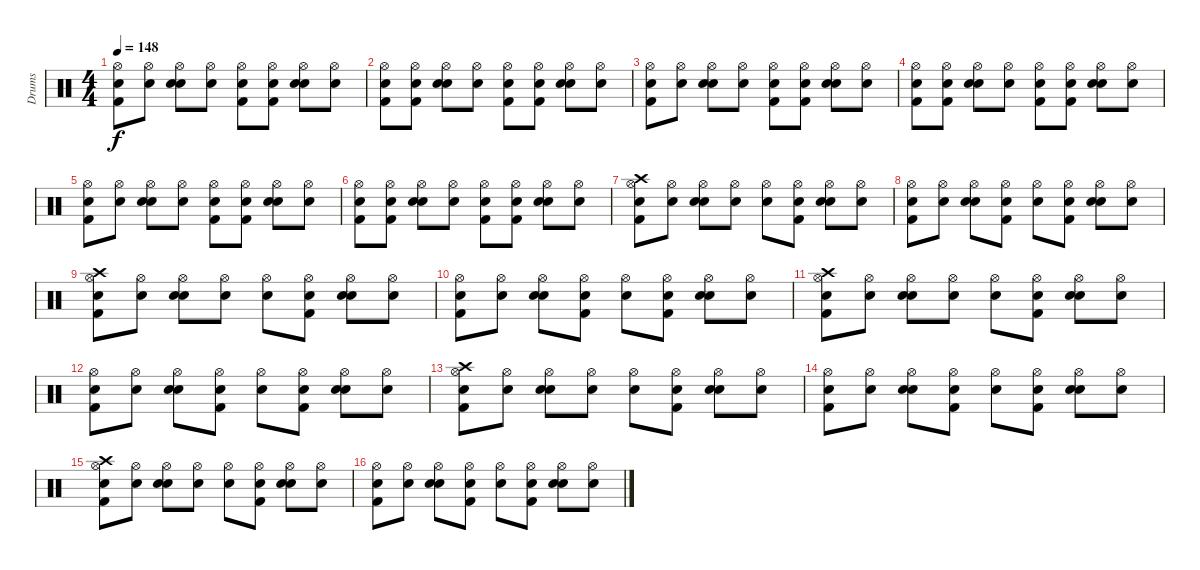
\track ("Drums" "Drums") {instrument percussion}
\staff {score}
\articulation defaults
\ts (4 4)
\tempo 148
\clef neutral
\ks c
("Snare (hit)" "Kick (hit) 2" "Hi-Hat (open)").8{dy f} ("Snare (hit)" "Hi-Hat (open)").8 ("Snare (hit)" "Snare (hit) 2" "Hi-Hat (open)").8 ("Snare (hit)" "Hi-Hat (open)").8 ("Snare (hit)" "Kick (hit) 2" "Hi-Hat (open)").8 ("Snare (hit)" "Kick (hit) 2" "Hi-Hat (open)").8 ("Snare (hit)" "Snare (hit) 2" "Hi-Hat (open)").8 ("Snare (hit)" "Hi-Hat (open)").8 |
("Snare (hit)" "Kick (hit) 2" "Hi-Hat (open)").8 ("Snare (hit)" "Kick (hit) 2" "Hi-Hat (open)").8 ("Snare (hit)" "Snare (hit) 2" "Hi-Hat (open)").8 ("Snare (hit)" "Hi-Hat (open)").8 ("Snare (hit)" "Kick (hit) 2" "Hi-Hat (open)").8 ("Snare (hit)" "Kick (hit) 2" "Hi-Hat (open)").8 ("Snare (hit)" "Snare (hit) 2" "Hi-Hat (open)").8 ("Snare (hit)" "Hi-Hat (open)").8 |
("Snare (hit)" "Kick (hit) 2" "Hi-Hat (open)").8 ("Snare (hit)" "Hi-Hat (open)").8 ("Snare (hit)" "Snare (hit) 2" "Hi-Hat (open)").8 ("Snare (hit)" "Hi-Hat (open)").8 ("Snare (hit)" "Kick (hit) 2" "Hi-Hat (open)").8 ("Snare (hit)" "Kick (hit) 2" "Hi-Hat (open)").8 ("Snare (hit)" "Snare (hit) 2" "Hi-Hat (open)").8 ("Snare (hit)" "Hi-Hat (open)").8 |
("Snare (hit)" "Kick (hit) 2" "Hi-Hat (open)").8 ("Snare (hit)" "Kick (hit) 2" "Hi-Hat (open)").8 ("Snare (hit)" "Snare (hit) 2" "Hi-Hat (open)").8 ("Snare (hit)" "Hi-Hat (open)").8 ("Snare (hit)" "Kick (hit) 2" "Hi-Hat (open)").8 ("Snare (hit)" "Kick (hit) 2" "Hi-Hat (open)").8 ("Snare (hit)" "Snare (hit) 2" "Hi-Hat (open)").8 ("Snare (hit)" "Hi-Hat (open)").8 |
("Snare (hit)" "Kick (hit) 2" "Hi-Hat (open)").8 ("Snare (hit)" "Hi-Hat (open)").8 ("Snare (hit)" "Snare (hit) 2" "Hi-Hat (open)").8 ("Snare (hit)" "Hi-Hat (open)").8 ("Snare (hit)" "Kick (hit) 2" "Hi-Hat (open)").8 ("Snare (hit)" "Kick (hit) 2" "Hi-Hat (open)").8 ("Snare (hit)" "Snare (hit) 2" "Hi-Hat (open)").8 ("Snare (hit)" "Hi-Hat (open)").8 |
("Snare (hit)" "Kick (hit) 2" "Hi-Hat (open)").8 ("Snare (hit)" "Kick (hit) 2" "Hi-Hat (open)").8 ("Snare (hit)" "Snare (hit) 2" "Hi-Hat (open)").8 ("Snare (hit)" "Hi-Hat (open)").8 ("Snare (hit)" "Kick (hit) 2" "Hi-Hat (open)").8 ("Snare (hit)" "Kick (hit) 2" "Hi-Hat (open)").8 ("Snare (hit)" "Snare (hit) 2" "Hi-Hat (open)").8 ("Snare (hit)" "Hi-Hat (open)").8 |
("Snare (hit)" "Kick (hit) 2" "Hi-Hat (open)" "Crash high (hit)").8 ("Snare (hit)" "Hi-Hat (open)").8 ("Snare (hit)" "Snare (hit) 2" "Hi-Hat (open)").8 ("Snare (hit)" "Hi-Hat (open)").8 ("Snare (hit)" "Hi-Hat (open)").8 ("Snare (hit)" "Kick (hit) 2" "Hi-Hat (open)").8 ("Snare (hit)" "Snare (hit) 2" "Hi-Hat (open)").8 ("Snare (hit)" "Hi-Hat (open)").8 |
("Snare (hit)" "Kick (hit) 2" "Hi-Hat (open)").8 ("Snare (hit)" "Hi-Hat (open)").8 ("Snare (hit)" "Snare (hit) 2" "Hi-Hat (open)").8 ("Snare (hit)" "Kick (hit) 2" "Hi-Hat (open)").8 ("Snare (hit)" "Hi-Hat (open)").8 ("Snare (hit)" "Kick (hit) 2" "Hi-Hat (open)").8 ("Snare (hit)" "Snare (hit) 2" "Hi-Hat (open)").8 ("Snare (hit)" "Hi-Hat (open)").8 |
("Snare (hit)" "Kick (hit) 2" "Hi-Hat (open)" "Crash high (hit)").8 ("Snare (hit)" "Hi-Hat (open)").8 ("Snare (hit)" "Snare (hit) 2" "Hi-Hat (open)").8 ("Snare (hit)" "Hi-Hat (open)").8 ("Snare (hit)" "Hi-Hat (open)").8 ("Snare (hit)" "Kick (hit) 2" "Hi-Hat (open)").8 ("Snare (hit)" "Snare (hit) 2" "Hi-Hat (open)").8 ("Snare (hit)" "Hi-Hat (open)").8 |
("Snare (hit)" "Kick (hit) 2" "Hi-Hat (open)").8 ("Snare (hit)" "Hi-Hat (open)").8 ("Snare (hit)" "Snare (hit) 2" "Hi-Hat (open)").8 ("Snare (hit)" "Kick (hit) 2" "Hi-Hat (open)").8 ("Snare (hit)" "Hi-Hat (open)").8 ("Snare (hit)" "Kick (hit) 2" "Hi-Hat (open)").8 ("Snare (hit)" "Snare (hit) 2" "Hi-Hat (open)").8 ("Snare (hit)" "Hi-Hat (open)").8 |
("Snare (hit)" "Kick (hit) 2" "Hi-Hat (open)" "Crash high (hit)").8 ("Snare (hit)" "Hi-Hat (open)").8 ("Snare (hit)" "Snare (hit) 2" "Hi-Hat (open)").8 ("Snare (hit)" "Hi-Hat (open)").8 ("Snare (hit)" "Hi-Hat (open)").8 ("Snare (hit)" "Kick (hit) 2" "Hi-Hat (open)").8 ("Snare (hit)" "Snare (hit) 2" "Hi-Hat (open)").8 ("Snare (hit)" "Hi-Hat (open)").8 |
("Snare (hit)" "Kick (hit) 2" "Hi-Hat (open)").8 ("Snare (hit)" "Hi-Hat (open)").8 ("Snare (hit)" "Snare (hit) 2" "Hi-Hat (open)").8 ("Snare (hit)" "Kick (hit) 2" "Hi-Hat (open)").8 ("Snare (hit)" "Hi-Hat (open)").8 ("Snare (hit)" "Kick (hit) 2" "Hi-Hat (open)").8 ("Snare (hit)" "Snare (hit) 2" "Hi-Hat (open)").8 ("Snare (hit)" "Hi-Hat (open)").8 |
("Snare (hit)" "Kick (hit) 2" "Hi-Hat (open)" "Crash high (hit)").8 ("Snare (hit)" "Hi-Hat (open)").8 ("Snare (hit)" "Snare (hit) 2" "Hi-Hat (open)").8 ("Snare (hit)" "Hi-Hat (open)").8 ("Snare (hit)" "Hi-Hat (open)").8 ("Snare (hit)" "Kick (hit) 2" "Hi-Hat (open)").8 ("Snare (hit)" "Snare (hit) 2" "Hi-Hat (open)").8 ("Snare (hit)" "Hi-Hat (open)").8 |
("Snare (hit)" "Kick (hit) 2" "Hi-Hat (open)").8 ("Snare (hit)" "Hi-Hat (open)").8 ("Snare (hit)" "Snare (hit) 2" "Hi-Hat (open)").8 ("Snare (hit)" "Kick (hit) 2" "Hi-Hat (open)").8 ("Snare (hit)" "Hi-Hat (open)").8 ("Snare (hit)" "Kick (hit) 2" "Hi-Hat (open)").8 ("Snare (hit)" "Snare (hit) 2" "Hi-Hat (open)").8 ("Snare (hit)" "Hi-Hat (open)").8 |
("Snare (hit)" "Kick (hit) 2" "Hi-Hat (open)" "Crash high (hit)").8 ("Snare (hit)" "Hi-Hat (open)").8 ("Snare (hit)" "Snare (hit) 2" "Hi-Hat (open)").8 ("Snare (hit)" "Hi-Hat (open)").8 ("Snare (hit)" "Hi-Hat (open)").8 ("Snare (hit)" "Kick (hit) 2" "Hi-Hat (open)").8 ("Snare (hit)" "Snare (hit) 2" "Hi-Hat (open)").8 ("Snare (hit)" "Hi-Hat (open)").8 |
("Snare (hit)" "Kick (hit) 2" "Hi-Hat (open)").8 ("Snare (hit)" "Hi-Hat (open)").8 ("Snare (hit)" "Snare (hit) 2" "Hi-Hat (open)").8 ("Snare (hit)" "Kick (hit) 2" "Hi-Hat (open)").8 ("Snare (hit)" "Hi-Hat (open)").8 ("Snare (hit)" "Kick (hit) 2" "Hi-Hat (open)").8 ("Snare (hit)" "Snare (hit) 2" "Hi-Hat (open)").8 ("Snare (hit)" "Hi-Hat (open)").8
